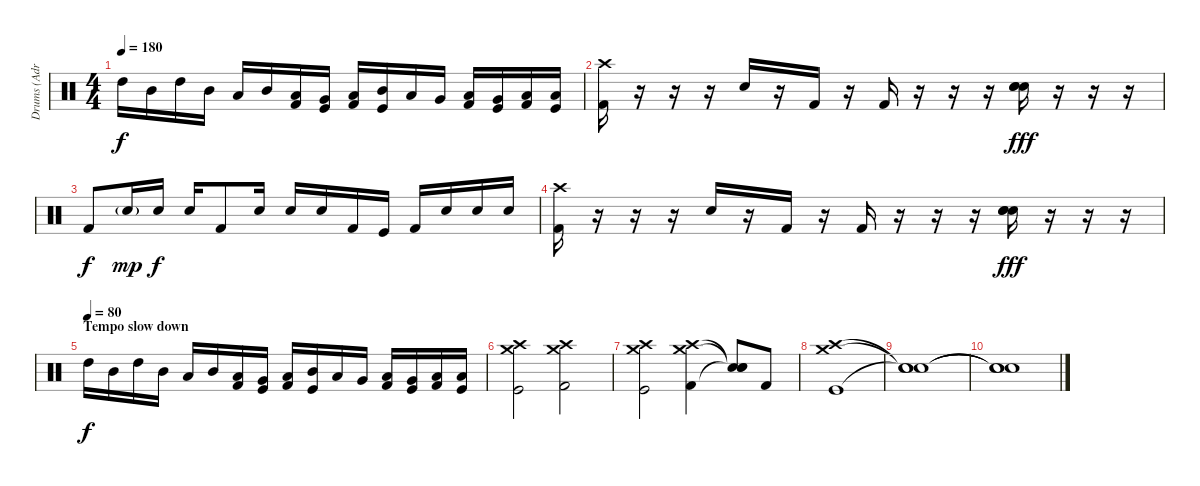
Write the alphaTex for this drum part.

\track ("Drums (Adrian)" "Drums (Adr") {instrument percussion}
\staff {score}
\articulation defaults
\ts (4 4)
\tempo 180
\clef neutral
\ks c "High Tom (hit)".16{dy f} "Mid Tom (hit)".16 "High Tom (hit)".16 "Mid Tom (hit)".16 "Low Tom (hit)".16 "Mid Tom (hit)".16
("Low Tom (hit)" "Kick (hit) 2").16 ("Very Low Tom (hit)" "Kick (hit)").16 ("Low Tom (hit)" "Kick (hit) 2").16 ("Mid Tom (hit)" "Kick (hit)").16 "Low Tom (hit)".16 "Very Low Tom (hit)".16 ("Low Floor Tom (hit)" "Kick (hit) 2").16 ("Very Low Tom (hit)" "Kick (hit)").16 ("Low Floor Tom (hit)" "Kick (hit) 2").16 ("Low Floor Tom (hit)" "Kick (hit)").16 |
("Crash high (hit)" "Kick (hit) 2").16 r.16 r.16 r.16 "Electric Snare (hit)".16 r.16 "Kick (hit) 2".16 r.16 "Kick (hit) 2".16 r.16 r.16 r.16 ("Electric Snare (hit)" "Electric Snare (hit)" "Electric Snare (hit)").16{dy fff} r.16 r.16 r.16 |
"Kick (hit) 2".8{dy f} "Electric Snare (hit)"{g}.16{dy mp} "Electric Snare (hit)".16{dy f} "Electric Snare (hit)".16 "Kick (hit) 2".8 "Electric Snare (hit)".16 "Electric Snare (hit)".16 "Electric Snare (hit)".16 "Kick (hit) 2".16 "Kick (hit)".16 "Kick (hit) 2".16 "Electric Snare (hit)".16 "Electric Snare (hit)".16 "Electric Snare (hit)".16 |
("Crash high (hit)" "Kick (hit) 2").16 r.16 r.16 r.16 "Electric Snare (hit)".16 r.16 "Kick (hit) 2".16 r.16 "Kick (hit) 2".16 r.16 r.16 r.16 ("Electric Snare (hit)" "Electric Snare (hit)" "Electric Snare (hit)").16{dy fff} r.16 r.16 r.16 |
\section ("" "Tempo slow down")
\tempo (80)
"High Tom (hit)".16{dy f} "Mid Tom (hit)".16 "High Tom (hit)".16 "Mid Tom (hit)".16 "Low Tom (hit)".16 "Mid Tom (hit)".16 ("Low Tom (hit)" "Kick (hit) 2").16 ("Very Low Tom (hit)" "Kick (hit)").16 ("Low Tom (hit)" "Kick (hit) 2").16 ("Mid Tom (hit)" "Kick (hit)").16 "Low Tom (hit)".16 "Very Low Tom (hit)".16 ("Low Floor Tom (hit)" "Kick (hit) 2").16 ("Very Low Tom (hit)" "Kick (hit)").16 ("Low Floor Tom (hit)" "Kick (hit) 2").16 ("Low Floor Tom (hit)" "Kick (hit)").16 |
("Crash high (hit)" "Crash medium (hit)" "Kick (hit)").2 ("Crash medium (hit)" "Crash high (hit)" "Kick (hit) 2").2 |
("Crash high (hit)" "Crash medium (hit)" "Kick (hit)").2 ("Crash medium (hit)" "Crash high (hit)" "Kick (hit) 2").4 ("Snare (hit)"{t} "Snare (hit)"{t} "Snare (hit)"{t}).8 "Kick (hit) 2".8 |
("Crash high (hit)" "Crash medium (hit)" "Kick (hit)").1 |
("Snare (hit)"{t} "Snare (hit)"{t} "Snare (hit)"{t}).1 |
("Snare (hit)"{t} "Snare (hit)"{t} "Snare (hit)"{t}).1
